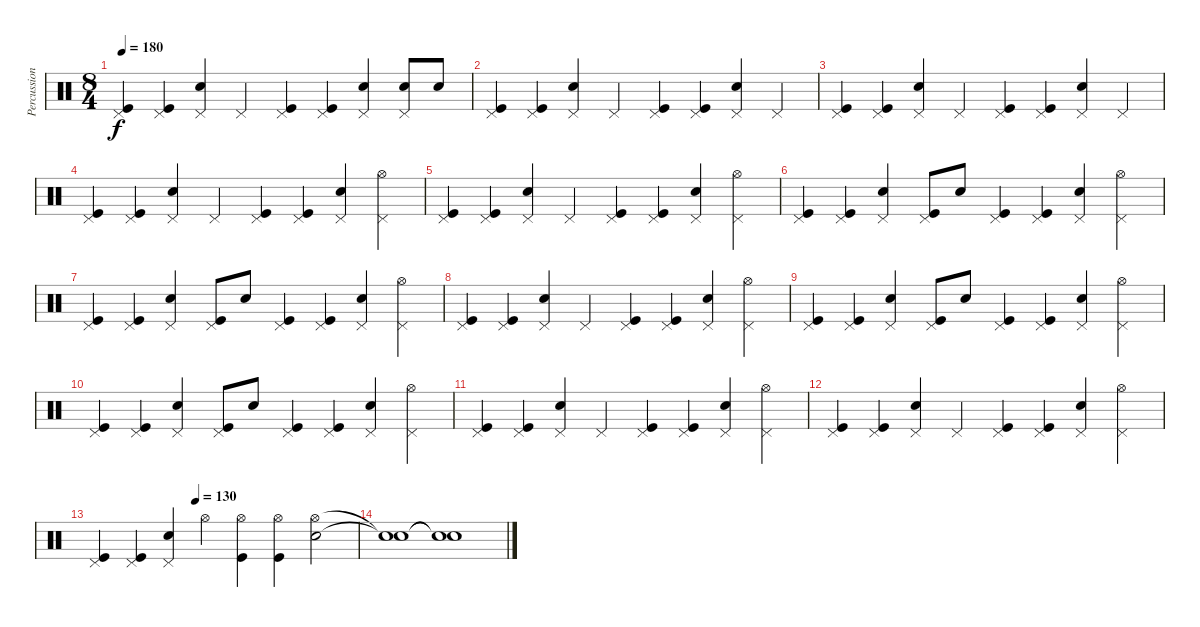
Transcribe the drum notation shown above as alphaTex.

\track ("Percussion" "Percussion") {instrument percussion}
\staff {score}
\articulation defaults
\ts (8 4)
\tempo 180
\clef neutral
\ks c
("Pedal Hi-Hat (hit)" "Kick (hit)").4{dy f} ("Pedal Hi-Hat (hit)" "Kick (hit)").4 ("Pedal Hi-Hat (hit)" "Electric Snare (hit)").4 "Pedal Hi-Hat (hit)".4 ("Pedal Hi-Hat (hit)" "Kick (hit)").4 ("Pedal Hi-Hat (hit)" "Kick (hit)").4 ("Pedal Hi-Hat (hit)" "Electric Snare (hit)").4 ("Pedal Hi-Hat (hit)" "Electric Snare (hit)").8 "Electric Snare (hit)".8 |
("Pedal Hi-Hat (hit)" "Kick (hit)").4 ("Pedal Hi-Hat (hit)" "Kick (hit)").4 ("Pedal Hi-Hat (hit)" "Electric Snare (hit)").4 "Pedal Hi-Hat (hit)".4 ("Pedal Hi-Hat (hit)" "Kick (hit)").4 ("Pedal Hi-Hat (hit)" "Kick (hit)").4 ("Pedal Hi-Hat (hit)" "Electric Snare (hit)").4 "Pedal Hi-Hat (hit)".4 |
("Pedal Hi-Hat (hit)" "Kick (hit)").4 ("Pedal Hi-Hat (hit)" "Kick (hit)").4 ("Pedal Hi-Hat (hit)" "Electric Snare (hit)").4 "Pedal Hi-Hat (hit)".4 ("Pedal Hi-Hat (hit)" "Kick (hit)").4 ("Pedal Hi-Hat (hit)" "Kick (hit)").4 ("Pedal Hi-Hat (hit)" "Electric Snare (hit)").4 "Pedal Hi-Hat (hit)".4 |
("Pedal Hi-Hat (hit)" "Kick (hit)").4 ("Pedal Hi-Hat (hit)" "Kick (hit)").4 ("Pedal Hi-Hat (hit)" "Electric Snare (hit)").4 "Pedal Hi-Hat (hit)".4 ("Pedal Hi-Hat (hit)" "Kick (hit)").4 ("Pedal Hi-Hat (hit)" "Kick (hit)").4 ("Pedal Hi-Hat (hit)" "Electric Snare (hit)").4 ("Pedal Hi-Hat (hit)" "Hi-Hat (open)").4 |
("Pedal Hi-Hat (hit)" "Kick (hit)").4 ("Pedal Hi-Hat (hit)" "Kick (hit)").4 ("Pedal Hi-Hat (hit)" "Electric Snare (hit)").4 "Pedal Hi-Hat (hit)".4 ("Pedal Hi-Hat (hit)" "Kick (hit)").4 ("Pedal Hi-Hat (hit)" "Kick (hit)").4 ("Pedal Hi-Hat (hit)" "Electric Snare (hit)").4 ("Pedal Hi-Hat (hit)" "Hi-Hat (open)").4 |
("Pedal Hi-Hat (hit)" "Kick (hit)").4 ("Pedal Hi-Hat (hit)" "Kick (hit)").4 ("Pedal Hi-Hat (hit)" "Electric Snare (hit)").4 ("Pedal Hi-Hat (hit)" "Kick (hit)").8 "Electric Snare (hit)".8 ("Pedal Hi-Hat (hit)" "Kick (hit)").4 ("Pedal Hi-Hat (hit)" "Kick (hit)").4 ("Pedal Hi-Hat (hit)" "Electric Snare (hit)").4 ("Pedal Hi-Hat (hit)" "Hi-Hat (open)").4 |
("Pedal Hi-Hat (hit)" "Kick (hit)").4 ("Pedal Hi-Hat (hit)" "Kick (hit)").4 ("Pedal Hi-Hat (hit)" "Electric Snare (hit)").4 ("Pedal Hi-Hat (hit)" "Kick (hit)").8 "Electric Snare (hit)".8 ("Pedal Hi-Hat (hit)" "Kick (hit)").4 ("Pedal Hi-Hat (hit)" "Kick (hit)").4 ("Pedal Hi-Hat (hit)" "Electric Snare (hit)").4 ("Pedal Hi-Hat (hit)" "Hi-Hat (open)").4 |
("Pedal Hi-Hat (hit)" "Kick (hit)").4 ("Pedal Hi-Hat (hit)" "Kick (hit)").4 ("Pedal Hi-Hat (hit)" "Electric Snare (hit)").4 "Pedal Hi-Hat (hit)".4 ("Pedal Hi-Hat (hit)" "Kick (hit)").4 ("Pedal Hi-Hat (hit)" "Kick (hit)").4 ("Pedal Hi-Hat (hit)" "Electric Snare (hit)").4 ("Pedal Hi-Hat (hit)" "Hi-Hat (open)").4 |
("Pedal Hi-Hat (hit)" "Kick (hit)").4 ("Pedal Hi-Hat (hit)" "Kick (hit)").4 ("Pedal Hi-Hat (hit)" "Electric Snare (hit)").4 ("Pedal Hi-Hat (hit)" "Kick (hit)").8 "Electric Snare (hit)".8 ("Pedal Hi-Hat (hit)" "Kick (hit)").4 ("Pedal Hi-Hat (hit)" "Kick (hit)").4 ("Pedal Hi-Hat (hit)" "Electric Snare (hit)").4 ("Pedal Hi-Hat (hit)" "Hi-Hat (open)").4 |
("Pedal Hi-Hat (hit)" "Kick (hit)").4 ("Pedal Hi-Hat (hit)" "Kick (hit)").4 ("Pedal Hi-Hat (hit)" "Electric Snare (hit)").4 ("Pedal Hi-Hat (hit)" "Kick (hit)").8 "Electric Snare (hit)".8 ("Pedal Hi-Hat (hit)" "Kick (hit)").4 ("Pedal Hi-Hat (hit)" "Kick (hit)").4 ("Pedal Hi-Hat (hit)" "Electric Snare (hit)").4 ("Pedal Hi-Hat (hit)" "Hi-Hat (open)").4 |
("Pedal Hi-Hat (hit)" "Kick (hit)").4 ("Pedal Hi-Hat (hit)" "Kick (hit)").4 ("Pedal Hi-Hat (hit)" "Electric Snare (hit)").4 "Pedal Hi-Hat (hit)".4 ("Pedal Hi-Hat (hit)" "Kick (hit)").4 ("Pedal Hi-Hat (hit)" "Kick (hit)").4 ("Pedal Hi-Hat (hit)" "Electric Snare (hit)").4 ("Pedal Hi-Hat (hit)" "Hi-Hat (open)").4 |
("Pedal Hi-Hat (hit)" "Kick (hit)").4 ("Pedal Hi-Hat (hit)" "Kick (hit)").4 ("Pedal Hi-Hat (hit)" "Electric Snare (hit)").4 "Pedal Hi-Hat (hit)".4 ("Pedal Hi-Hat (hit)" "Kick (hit)").4 ("Pedal Hi-Hat (hit)" "Kick (hit)").4 ("Pedal Hi-Hat (hit)" "Electric Snare (hit)").4 ("Pedal Hi-Hat (hit)" "Hi-Hat (open)").4 |
\tempo (130 0.375)
("Pedal Hi-Hat (hit)" "Kick (hit)").4 ("Pedal Hi-Hat (hit)" "Kick (hit)").4 ("Pedal Hi-Hat (hit)" "Electric Snare (hit)").4 "Hi-Hat (open)".4 ("Hi-Hat (open)" "Kick (hit)").4 ("Hi-Hat (open)" "Kick (hit)").4 ("Hi-Hat (open)" "Electric Snare (hit)").2 |
("Snare (hit)"{t} "Snare (hit)"{t}).1 ("Snare (hit)"{t} "Snare (hit)"{t}).1
